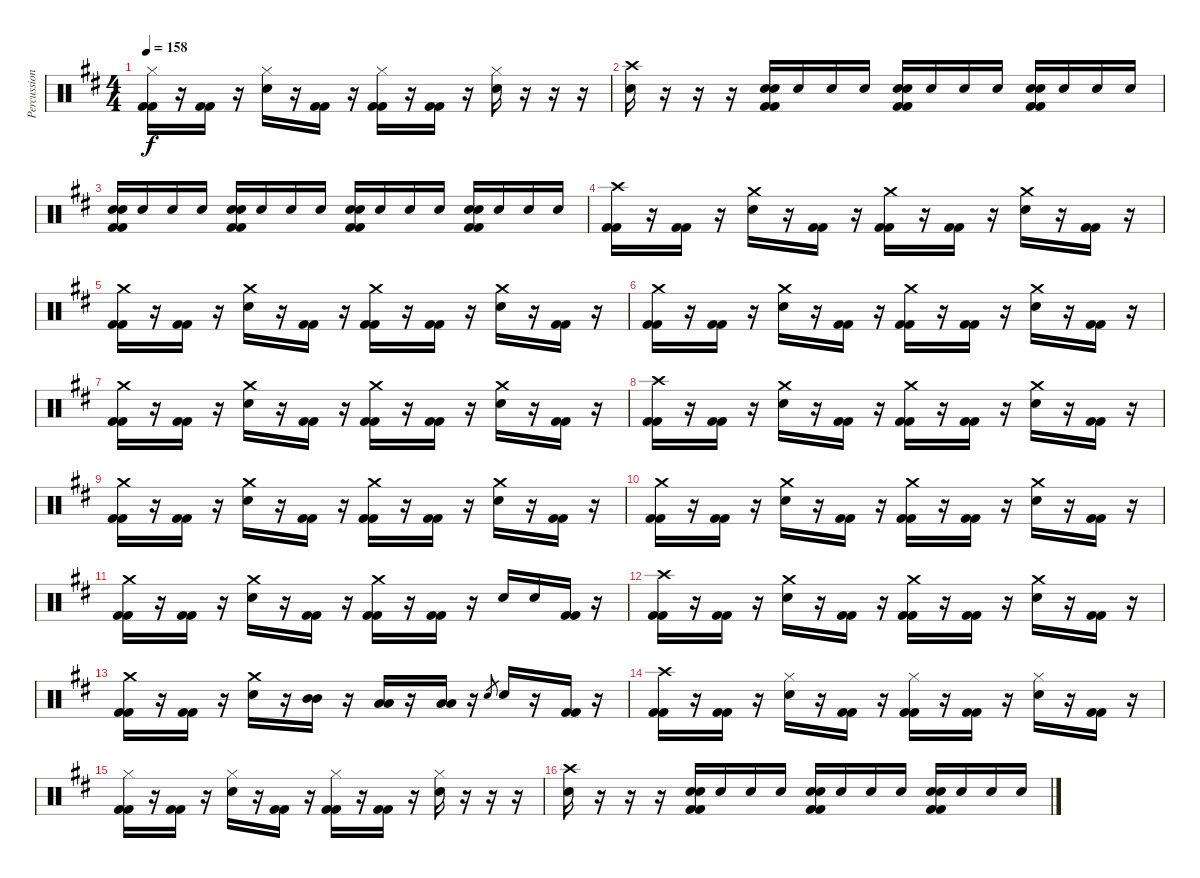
\track ("Percussion" "Percussion") {instrument percussion}
\staff {score}
\articulation defaults
\ts (4 4)
\tempo 158
\clef neutral
\ks d
("Hi-Hat (closed)" "Kick (hit) 2" "Kick (hit) 2").16{dy f} r.16 ("Kick (hit) 2" "Kick (hit) 2").16 r.16 ("Hi-Hat (closed)" "Electric Snare (hit)").16 r.16 ("Kick (hit) 2" "Kick (hit) 2").16 r.16 ("Hi-Hat (closed)" "Kick (hit) 2" "Kick (hit) 2").16 r.16 ("Kick (hit) 2" "Kick (hit) 2").16 r.16 ("Hi-Hat (closed)" "Electric Snare (hit)").16 r.16 r.16 r.16 |
("Crash high (hit)" "Electric Snare (hit)").16 r.16 r.16 r.16 ("Electric Snare (hit)" "Electric Snare (hit)" "Kick (hit) 2" "Kick (hit) 2").16 "Electric Snare (hit)".16 "Electric Snare (hit)".16 "Electric Snare (hit)".16 ("Electric Snare (hit)" "Electric Snare (hit)" "Kick (hit) 2" "Kick (hit) 2").16 "Electric Snare (hit)".16 "Electric Snare (hit)".16 "Electric Snare (hit)".16 ("Electric Snare (hit)" "Electric Snare (hit)" "Kick (hit) 2" "Kick (hit) 2").16 "Electric Snare (hit)".16 "Electric Snare (hit)".16 "Electric Snare (hit)".16 |
("Electric Snare (hit)" "Electric Snare (hit)" "Kick (hit) 2" "Kick (hit) 2").16 "Electric Snare (hit)".16 "Electric Snare (hit)".16 "Electric Snare (hit)".16 ("Electric Snare (hit)" "Electric Snare (hit)" "Kick (hit) 2" "Kick (hit) 2").16 "Electric Snare (hit)".16 "Electric Snare (hit)".16 "Electric Snare (hit)".16 ("Electric Snare (hit)" "Electric Snare (hit)" "Kick (hit) 2" "Kick (hit) 2").16 "Electric Snare (hit)".16 "Electric Snare (hit)".16 "Electric Snare (hit)".16 ("Electric Snare (hit)" "Electric Snare (hit)" "Kick (hit) 2" "Kick (hit) 2").16 "Electric Snare (hit)".16 "Electric Snare (hit)".16 "Electric Snare (hit)".16 |
("Crash high (hit)" "Kick (hit) 2" "Kick (hit) 2").16 r.16 ("Kick (hit) 2" "Kick (hit) 2").16 r.16 ("Crash medium (hit)" "Electric Snare (hit)").16 r.16 ("Kick (hit) 2" "Kick (hit) 2").16 r.16 ("Crash medium (hit)" "Kick (hit) 2" "Kick (hit) 2").16 r.16 ("Kick (hit) 2" "Kick (hit) 2").16 r.16 ("Crash medium (hit)" "Electric Snare (hit)").16 r.16 ("Kick (hit) 2" "Kick (hit) 2").16 r.16 |
("Crash medium (hit)" "Kick (hit) 2" "Kick (hit) 2").16 r.16 ("Kick (hit) 2" "Kick (hit) 2").16 r.16 ("Crash medium (hit)" "Electric Snare (hit)").16 r.16 ("Kick (hit) 2" "Kick (hit) 2").16 r.16 ("Crash medium (hit)" "Kick (hit) 2" "Kick (hit) 2").16 r.16 ("Kick (hit) 2" "Kick (hit) 2").16 r.16 ("Crash medium (hit)" "Electric Snare (hit)").16 r.16 ("Kick (hit) 2" "Kick (hit) 2").16 r.16 |
("Crash medium (hit)" "Kick (hit) 2" "Kick (hit) 2").16 r.16 ("Kick (hit) 2" "Kick (hit) 2").16 r.16 ("Crash medium (hit)" "Electric Snare (hit)").16 r.16 ("Kick (hit) 2" "Kick (hit) 2").16 r.16 ("Crash medium (hit)" "Kick (hit) 2" "Kick (hit) 2").16 r.16 ("Kick (hit) 2" "Kick (hit) 2").16 r.16 ("Crash medium (hit)" "Electric Snare (hit)").16 r.16 ("Kick (hit) 2" "Kick (hit) 2").16 r.16 |
("Crash medium (hit)" "Kick (hit) 2" "Kick (hit) 2").16 r.16 ("Kick (hit) 2" "Kick (hit) 2").16 r.16 ("Crash medium (hit)" "Electric Snare (hit)").16 r.16 ("Kick (hit) 2" "Kick (hit) 2").16 r.16 ("Crash medium (hit)" "Kick (hit) 2" "Kick (hit) 2").16 r.16 ("Kick (hit) 2" "Kick (hit) 2").16 r.16 ("Crash medium (hit)" "Electric Snare (hit)").16 r.16 ("Kick (hit) 2" "Kick (hit) 2").16 r.16 |
("Crash high (hit)" "Kick (hit) 2" "Kick (hit) 2").16 r.16 ("Kick (hit) 2" "Kick (hit) 2").16 r.16 ("Crash medium (hit)" "Electric Snare (hit)").16 r.16 ("Kick (hit) 2" "Kick (hit) 2").16 r.16 ("Crash medium (hit)" "Kick (hit) 2" "Kick (hit) 2").16 r.16 ("Kick (hit) 2" "Kick (hit) 2").16 r.16 ("Crash medium (hit)" "Electric Snare (hit)").16 r.16 ("Kick (hit) 2" "Kick (hit) 2").16 r.16 |
("Crash medium (hit)" "Kick (hit) 2" "Kick (hit) 2").16 r.16 ("Kick (hit) 2" "Kick (hit) 2").16 r.16 ("Crash medium (hit)" "Electric Snare (hit)").16 r.16 ("Kick (hit) 2" "Kick (hit) 2").16 r.16 ("Crash medium (hit)" "Kick (hit) 2" "Kick (hit) 2").16 r.16 ("Kick (hit) 2" "Kick (hit) 2").16 r.16 ("Crash medium (hit)" "Electric Snare (hit)").16 r.16 ("Kick (hit) 2" "Kick (hit) 2").16 r.16 |
("Crash medium (hit)" "Kick (hit) 2" "Kick (hit) 2").16 r.16 ("Kick (hit) 2" "Kick (hit) 2").16 r.16 ("Crash medium (hit)" "Electric Snare (hit)").16 r.16 ("Kick (hit) 2" "Kick (hit) 2").16 r.16 ("Crash medium (hit)" "Kick (hit) 2" "Kick (hit) 2").16 r.16 ("Kick (hit) 2" "Kick (hit) 2").16 r.16 ("Crash medium (hit)" "Electric Snare (hit)").16 r.16 ("Kick (hit) 2" "Kick (hit) 2").16 r.16 |
("Crash medium (hit)" "Kick (hit) 2" "Kick (hit) 2").16 r.16 ("Kick (hit) 2" "Kick (hit) 2").16 r.16 ("Crash medium (hit)" "Electric Snare (hit)").16 r.16 ("Kick (hit) 2" "Kick (hit) 2").16 r.16 ("Crash medium (hit)" "Kick (hit) 2" "Kick (hit) 2").16 r.16 ("Kick (hit) 2" "Kick (hit) 2").16 r.16 "Electric Snare (hit)".16 "Electric Snare (hit)".16 ("Kick (hit) 2" "Kick (hit) 2").16 r.16 |
("Crash high (hit)" "Kick (hit) 2" "Kick (hit) 2").16 r.16 ("Kick (hit) 2" "Kick (hit) 2").16 r.16 ("Crash medium (hit)" "Electric Snare (hit)").16 r.16 ("Kick (hit) 2" "Kick (hit) 2").16 r.16 ("Crash medium (hit)" "Kick (hit) 2" "Kick (hit) 2").16 r.16 ("Kick (hit) 2" "Kick (hit) 2").16 r.16 ("Crash medium (hit)" "Electric Snare (hit)").16 r.16 ("Kick (hit) 2" "Kick (hit) 2").16 r.16 |
("Crash medium (hit)" "Kick (hit) 2" "Kick (hit) 2").16 r.16 ("Kick (hit) 2" "Kick (hit) 2").16 r.16 ("Crash medium (hit)" "Electric Snare (hit)").16 r.16 ("Mid Tom (hit)" "Mid Tom (hit)").16 r.16 ("Low Tom (hit)" "Low Tom (hit)").16 r.16 ("Low Floor Tom (hit)" "Low Floor Tom (hit)").16 r.16 "Electric Snare (hit)".8{gr} "Electric Snare (hit)".16 r.16 ("Kick (hit) 2" "Kick (hit) 2").16 r.16 |
("Crash high (hit)" "Kick (hit) 2" "Kick (hit) 2").16 r.16 ("Kick (hit) 2" "Kick (hit) 2").16 r.16 ("Hi-Hat (closed)" "Electric Snare (hit)").16 r.16 ("Kick (hit) 2" "Kick (hit) 2").16 r.16 ("Hi-Hat (closed)" "Kick (hit) 2" "Kick (hit) 2").16 r.16 ("Kick (hit) 2" "Kick (hit) 2").16 r.16 ("Hi-Hat (closed)" "Electric Snare (hit)").16 r.16 ("Kick (hit) 2" "Kick (hit) 2").16 r.16 |
("Hi-Hat (closed)" "Kick (hit) 2" "Kick (hit) 2").16 r.16 ("Kick (hit) 2" "Kick (hit) 2").16 r.16 ("Hi-Hat (closed)" "Electric Snare (hit)").16 r.16 ("Kick (hit) 2" "Kick (hit) 2").16 r.16 ("Hi-Hat (closed)" "Kick (hit) 2" "Kick (hit) 2").16 r.16 ("Kick (hit) 2" "Kick (hit) 2").16 r.16 ("Hi-Hat (closed)" "Electric Snare (hit)").16 r.16 r.16 r.16 |
("Crash high (hit)" "Electric Snare (hit)").16 r.16 r.16 r.16 ("Electric Snare (hit)" "Electric Snare (hit)" "Kick (hit) 2" "Kick (hit) 2").16 "Electric Snare (hit)".16 "Electric Snare (hit)".16 "Electric Snare (hit)".16 ("Electric Snare (hit)" "Electric Snare (hit)" "Kick (hit) 2" "Kick (hit) 2").16 "Electric Snare (hit)".16 "Electric Snare (hit)".16 "Electric Snare (hit)".16 ("Electric Snare (hit)" "Electric Snare (hit)" "Kick (hit) 2" "Kick (hit) 2").16 "Electric Snare (hit)".16 "Electric Snare (hit)".16 "Electric Snare (hit)".16
